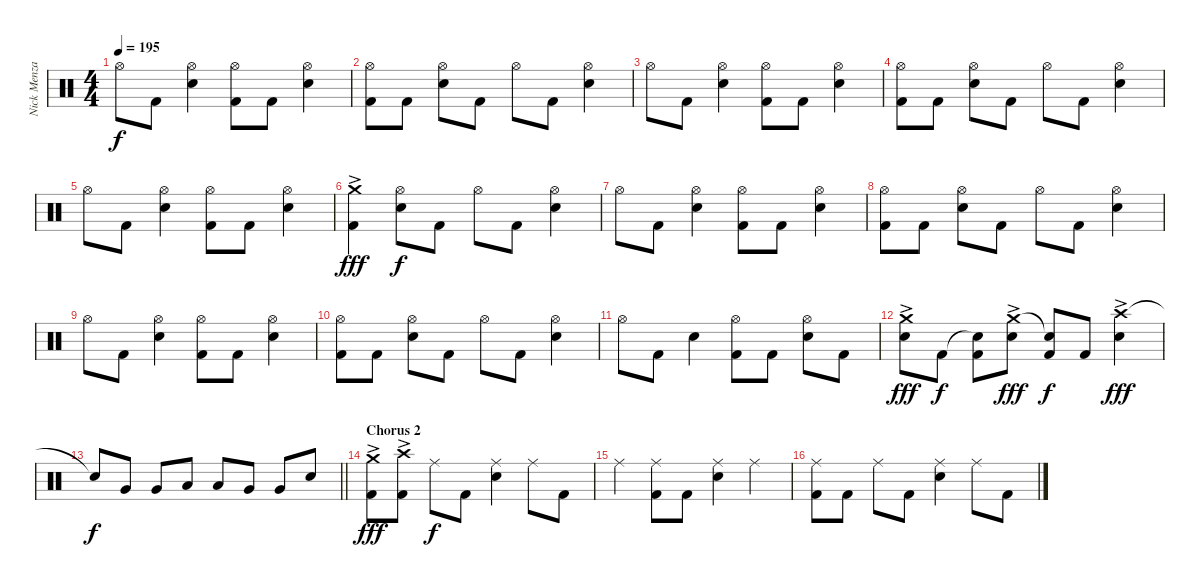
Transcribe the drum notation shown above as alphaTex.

\track ("Nick Menza" "Nick Menza") {instrument percussion}
\staff {score}
\articulation defaults
\ts (4 4)
\tempo 195
\clef neutral
\ks c "Hi-Hat (open)".8{dy f} "Kick (hit) 2".8
("Hi-Hat (open)" "Snare (hit) 2").4 ("Hi-Hat (open)" "Kick (hit) 2").8 "Kick (hit) 2".8 ("Hi-Hat (open)" "Snare (hit) 2").4 |
("Hi-Hat (open)" "Kick (hit) 2").8 "Kick (hit) 2".8 ("Hi-Hat (open)" "Snare (hit) 2").8 "Kick (hit) 2".8 "Hi-Hat (open)".8 "Kick (hit) 2".8 ("Hi-Hat (open)" "Snare (hit) 2").4 |
"Hi-Hat (open)".8 "Kick (hit) 2".8 ("Hi-Hat (open)" "Snare (hit) 2").4 ("Hi-Hat (open)" "Kick (hit) 2").8 "Kick (hit) 2".8 ("Hi-Hat (open)" "Snare (hit) 2").4 |
("Hi-Hat (open)" "Kick (hit) 2").8 "Kick (hit) 2".8 ("Hi-Hat (open)" "Snare (hit) 2").8 "Kick (hit) 2".8 "Hi-Hat (open)".8 "Kick (hit) 2".8 ("Hi-Hat (open)" "Snare (hit) 2").4 |
"Hi-Hat (open)".8 "Kick (hit) 2".8 ("Hi-Hat (open)" "Snare (hit) 2").4 ("Hi-Hat (open)" "Kick (hit) 2").8 "Kick (hit) 2".8 ("Hi-Hat (open)" "Snare (hit) 2").4 |
("Crash medium (hit)"{ac} "Kick (hit) 2").4{dy fff} ("Hi-Hat (open)" "Snare (hit) 2").8{dy f} "Kick (hit) 2".8 "Hi-Hat (open)".8 "Kick (hit) 2".8 ("Hi-Hat (open)" "Snare (hit) 2").4 |
"Hi-Hat (open)".8 "Kick (hit) 2".8 ("Hi-Hat (open)" "Snare (hit) 2").4 ("Hi-Hat (open)" "Kick (hit) 2").8 "Kick (hit) 2".8 ("Hi-Hat (open)" "Snare (hit) 2").4 |
("Hi-Hat (open)" "Kick (hit) 2").8 "Kick (hit) 2".8 ("Hi-Hat (open)" "Snare (hit) 2").8 "Kick (hit) 2".8 "Hi-Hat (open)".8 "Kick (hit) 2".8 ("Hi-Hat (open)" "Snare (hit) 2").4 |
"Hi-Hat (open)".8 "Kick (hit) 2".8 ("Hi-Hat (open)" "Snare (hit) 2").4 ("Hi-Hat (open)" "Kick (hit) 2").8 "Kick (hit) 2".8 ("Hi-Hat (open)" "Snare (hit) 2").4 |
("Hi-Hat (open)" "Kick (hit) 2").8 "Kick (hit) 2".8 ("Hi-Hat (open)" "Snare (hit) 2").8 "Kick (hit) 2".8 "Hi-Hat (open)".8 "Kick (hit) 2".8 ("Hi-Hat (open)" "Snare (hit) 2").4 |
"Hi-Hat (open)".8 "Kick (hit) 2".8 "Snare (hit) 2".4 ("Hi-Hat (open)" "Kick (hit) 2").8 "Kick (hit) 2".8 ("Hi-Hat (open)" "Snare (hit) 2").8 "Kick (hit) 2".8 |
("Crash medium (hit)"{ac} "Snare (hit) 2").8{dy fff} "Kick (hit) 2".8{dy f} ("Snare (hit)"{t} "Kick (hit) 2").8 ("Crash medium (hit)"{ac} "Snare (hit) 2").8{dy fff} ("Snare (hit)"{t} "Kick (hit) 2").8{dy f} "Kick (hit) 2".8 ("Crash high (hit)"{ac} "Snare (hit) 2").4{dy fff} |
\barLineRight lightlight "Snare (hit)"{t}.8{dy f} "Very Low Tom (hit)".8 "Very Low Tom (hit)".8 "Low Tom (hit)".8 "Low Tom (hit)".8 "Very Low Tom (hit)".8 "Very Low Tom (hit)".8 "Snare (hit) 2".8
|
\section ("" "Chorus 2")
("Crash medium (hit)"{ac} "Kick (hit) 2").8{dy fff} ("Crash high (hit)"{ac} "Kick (hit) 2").8 "Ride (middle)".8{dy f} "Kick (hit) 2".8 ("Ride (middle)" "Snare (hit) 2").4 "Ride (middle)".8 "Kick (hit) 2".8 |
"Ride (middle)".4 ("Ride (middle)" "Kick (hit) 2").8 "Kick (hit) 2".8 ("Ride (middle)" "Snare (hit) 2").4 "Ride (middle)".4 |
("Ride (middle)" "Kick (hit) 2").8 "Kick (hit) 2".8 "Ride (middle)".8 "Kick (hit) 2".8 ("Ride (middle)" "Snare (hit) 2").4 "Ride (middle)".8 "Kick (hit) 2".8
